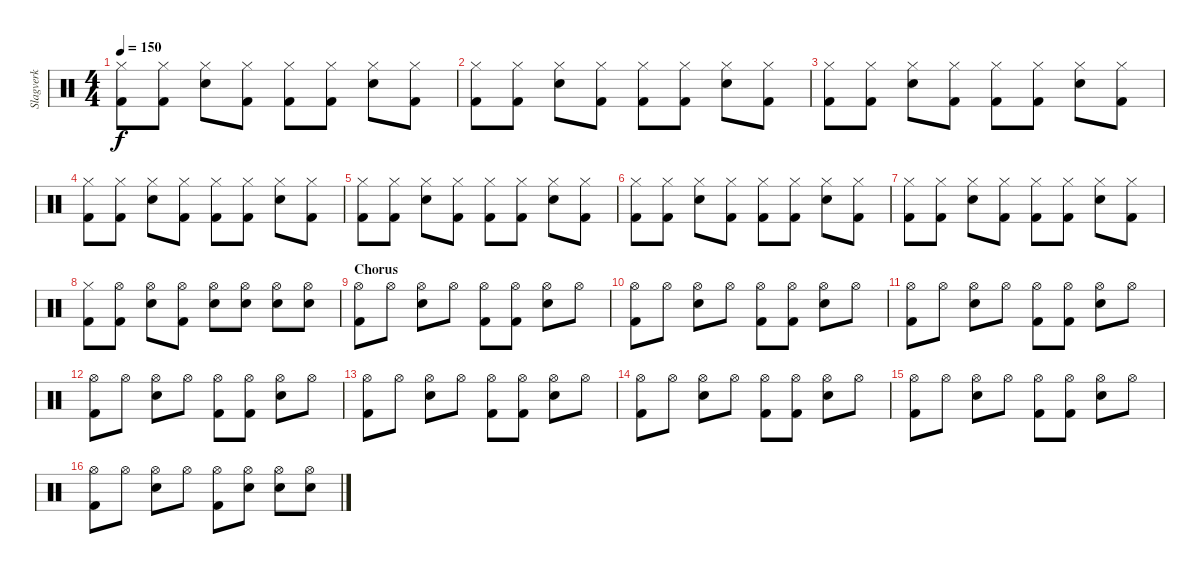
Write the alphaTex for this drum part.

\track ("Slagverk" "Slagverk") {instrument percussion}
\staff {score}
\articulation defaults
\ts (4 4)
\tempo 150
\clef neutral
\ks c
("Hi-Hat (closed)" "Kick (hit) 2").8{dy f} ("Hi-Hat (closed)" "Kick (hit) 2").8 ("Hi-Hat (closed)" "Electric Snare (hit)").8 ("Hi-Hat (closed)" "Kick (hit) 2").8 ("Hi-Hat (closed)" "Kick (hit) 2").8 ("Hi-Hat (closed)" "Kick (hit) 2").8 ("Hi-Hat (closed)" "Electric Snare (hit)").8 ("Hi-Hat (closed)" "Kick (hit) 2").8 |
("Hi-Hat (closed)" "Kick (hit) 2").8 ("Hi-Hat (closed)" "Kick (hit) 2").8 ("Hi-Hat (closed)" "Electric Snare (hit)").8 ("Hi-Hat (closed)" "Kick (hit) 2").8 ("Hi-Hat (closed)" "Kick (hit) 2").8 ("Hi-Hat (closed)" "Kick (hit) 2").8 ("Hi-Hat (closed)" "Electric Snare (hit)").8 ("Hi-Hat (closed)" "Kick (hit) 2").8 |
("Hi-Hat (closed)" "Kick (hit) 2").8 ("Hi-Hat (closed)" "Kick (hit) 2").8 ("Hi-Hat (closed)" "Electric Snare (hit)").8 ("Hi-Hat (closed)" "Kick (hit) 2").8 ("Hi-Hat (closed)" "Kick (hit) 2").8 ("Hi-Hat (closed)" "Kick (hit) 2").8 ("Hi-Hat (closed)" "Electric Snare (hit)").8 ("Hi-Hat (closed)" "Kick (hit) 2").8 |
("Hi-Hat (closed)" "Kick (hit) 2").8 ("Hi-Hat (closed)" "Kick (hit) 2").8 ("Hi-Hat (closed)" "Electric Snare (hit)").8 ("Hi-Hat (closed)" "Kick (hit) 2").8 ("Hi-Hat (closed)" "Kick (hit) 2").8 ("Hi-Hat (closed)" "Kick (hit) 2").8 ("Hi-Hat (closed)" "Electric Snare (hit)").8 ("Hi-Hat (closed)" "Kick (hit) 2").8 |
("Hi-Hat (closed)" "Kick (hit) 2").8 ("Hi-Hat (closed)" "Kick (hit) 2").8 ("Hi-Hat (closed)" "Electric Snare (hit)").8 ("Hi-Hat (closed)" "Kick (hit) 2").8 ("Hi-Hat (closed)" "Kick (hit) 2").8 ("Hi-Hat (closed)" "Kick (hit) 2").8 ("Hi-Hat (closed)" "Electric Snare (hit)").8 ("Hi-Hat (closed)" "Kick (hit) 2").8 |
("Hi-Hat (closed)" "Kick (hit) 2").8 ("Hi-Hat (closed)" "Kick (hit) 2").8 ("Hi-Hat (closed)" "Electric Snare (hit)").8 ("Hi-Hat (closed)" "Kick (hit) 2").8 ("Hi-Hat (closed)" "Kick (hit) 2").8 ("Hi-Hat (closed)" "Kick (hit) 2").8 ("Hi-Hat (closed)" "Electric Snare (hit)").8 ("Hi-Hat (closed)" "Kick (hit) 2").8 |
("Hi-Hat (closed)" "Kick (hit) 2").8 ("Hi-Hat (closed)" "Kick (hit) 2").8 ("Hi-Hat (closed)" "Electric Snare (hit)").8 ("Hi-Hat (closed)" "Kick (hit) 2").8 ("Hi-Hat (closed)" "Kick (hit) 2").8 ("Hi-Hat (closed)" "Kick (hit) 2").8 ("Hi-Hat (closed)" "Electric Snare (hit)").8 ("Hi-Hat (closed)" "Kick (hit) 2").8 |
("Hi-Hat (closed)" "Kick (hit) 2").8 ("Hi-Hat (open)" "Kick (hit) 2").8 ("Hi-Hat (open)" "Electric Snare (hit)").8 ("Hi-Hat (open)" "Kick (hit) 2").8 ("Hi-Hat (open)" "Electric Snare (hit)").8 ("Hi-Hat (open)" "Electric Snare (hit)").8 ("Hi-Hat (open)" "Electric Snare (hit)").8 ("Hi-Hat (open)" "Electric Snare (hit)").8 |
\section ("" "Chorus")
("Hi-Hat (open)" "Kick (hit) 2").8 "Hi-Hat (open)".8 ("Hi-Hat (open)" "Electric Snare (hit)").8 "Hi-Hat (open)".8 ("Hi-Hat (open)" "Kick (hit) 2").8 ("Hi-Hat (open)" "Kick (hit) 2").8 ("Hi-Hat (open)" "Electric Snare (hit)").8 "Hi-Hat (open)".8 |
("Hi-Hat (open)" "Kick (hit) 2").8 "Hi-Hat (open)".8 ("Hi-Hat (open)" "Electric Snare (hit)").8 "Hi-Hat (open)".8 ("Hi-Hat (open)" "Kick (hit) 2").8 ("Hi-Hat (open)" "Kick (hit) 2").8 ("Hi-Hat (open)" "Electric Snare (hit)").8 "Hi-Hat (open)".8 |
("Hi-Hat (open)" "Kick (hit) 2").8 "Hi-Hat (open)".8 ("Hi-Hat (open)" "Electric Snare (hit)").8 "Hi-Hat (open)".8 ("Hi-Hat (open)" "Kick (hit) 2").8 ("Hi-Hat (open)" "Kick (hit) 2").8 ("Hi-Hat (open)" "Electric Snare (hit)").8 "Hi-Hat (open)".8 |
("Hi-Hat (open)" "Kick (hit) 2").8 "Hi-Hat (open)".8 ("Hi-Hat (open)" "Electric Snare (hit)").8 "Hi-Hat (open)".8 ("Hi-Hat (open)" "Kick (hit) 2").8 ("Hi-Hat (open)" "Kick (hit) 2").8 ("Hi-Hat (open)" "Electric Snare (hit)").8 "Hi-Hat (open)".8 |
("Hi-Hat (open)" "Kick (hit) 2").8 "Hi-Hat (open)".8 ("Hi-Hat (open)" "Electric Snare (hit)").8 "Hi-Hat (open)".8 ("Hi-Hat (open)" "Kick (hit) 2").8 ("Hi-Hat (open)" "Kick (hit) 2").8 ("Hi-Hat (open)" "Electric Snare (hit)").8 "Hi-Hat (open)".8 |
("Hi-Hat (open)" "Kick (hit) 2").8 "Hi-Hat (open)".8 ("Hi-Hat (open)" "Electric Snare (hit)").8 "Hi-Hat (open)".8 ("Hi-Hat (open)" "Kick (hit) 2").8 ("Hi-Hat (open)" "Kick (hit) 2").8 ("Hi-Hat (open)" "Electric Snare (hit)").8 "Hi-Hat (open)".8 |
("Hi-Hat (open)" "Kick (hit) 2").8 "Hi-Hat (open)".8 ("Hi-Hat (open)" "Electric Snare (hit)").8 "Hi-Hat (open)".8 ("Hi-Hat (open)" "Kick (hit) 2").8 ("Hi-Hat (open)" "Kick (hit) 2").8 ("Hi-Hat (open)" "Electric Snare (hit)").8 "Hi-Hat (open)".8 |
("Hi-Hat (open)" "Kick (hit) 2").8 "Hi-Hat (open)".8 ("Hi-Hat (open)" "Electric Snare (hit)").8 "Hi-Hat (open)".8 ("Hi-Hat (open)" "Kick (hit) 2").8 ("Hi-Hat (open)" "Electric Snare (hit)").8 ("Hi-Hat (open)" "Electric Snare (hit)").8 ("Hi-Hat (open)" "Electric Snare (hit)").8
